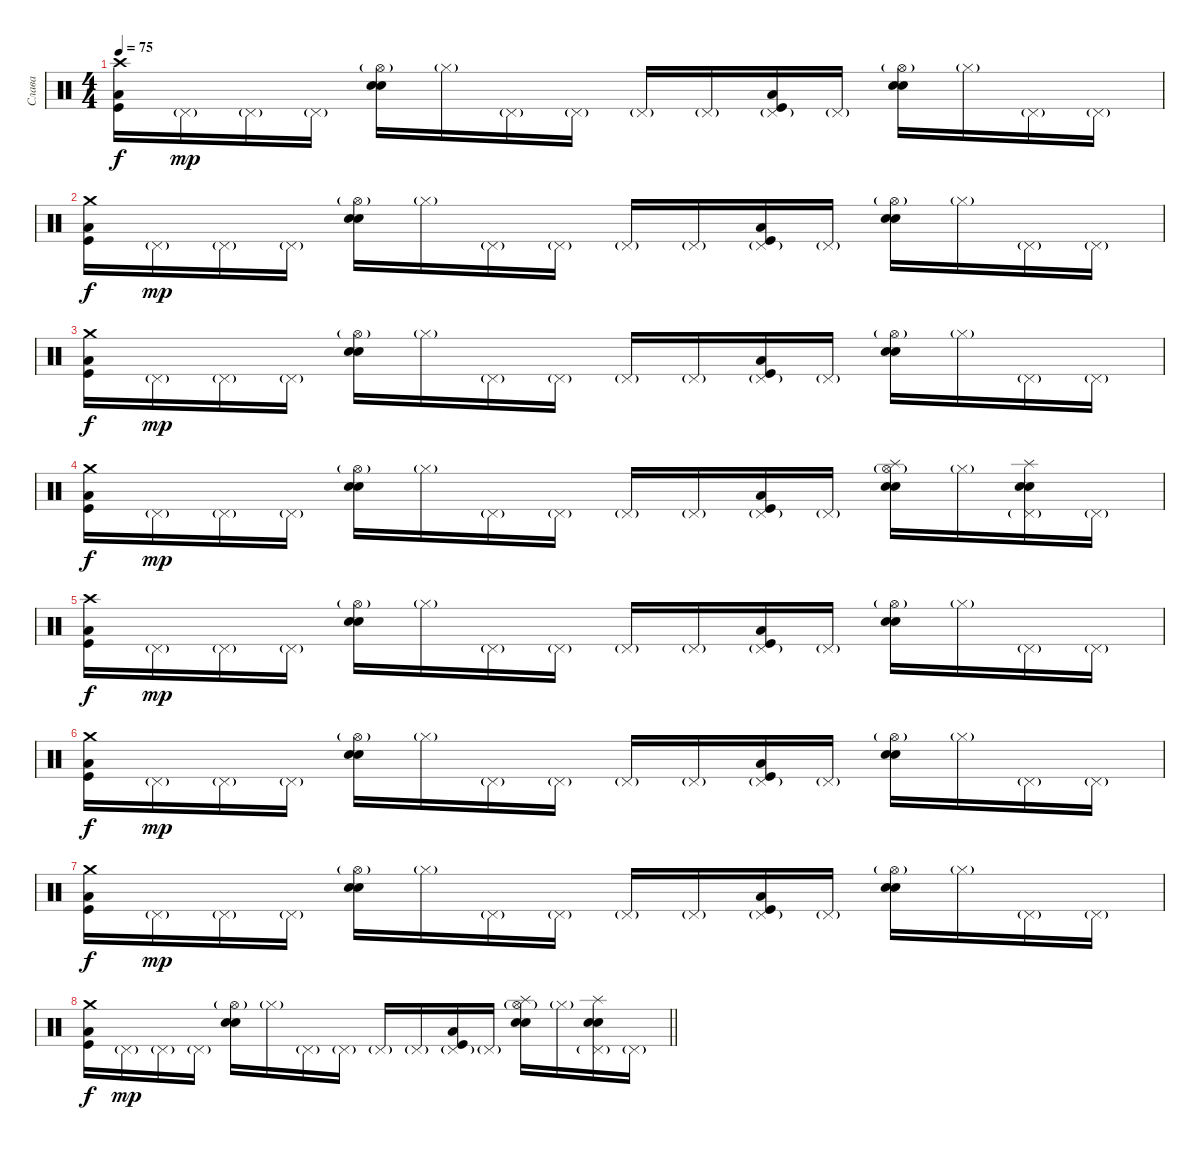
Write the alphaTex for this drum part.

\track ("Слава" "Слава") {instrument percussion}
\staff {score}
\articulation defaults
\ts (4 4)
\tempo 75
\clef neutral
\ks c
("Crash high (hit)" "Low Tom (hit)" "Kick (hit)").16{dy f} "Pedal Hi-Hat (hit)"{g}.16{dy mp} "Pedal Hi-Hat (hit)"{g}.16 "Pedal Hi-Hat (hit)"{g}.16 ("Hi-Hat (open)"{g} "Electric Snare (hit)" "Snare (hit) 2").16 "Hi-Hat (closed)"{g}.16 "Pedal Hi-Hat (hit)"{g}.16 "Pedal Hi-Hat (hit)"{g}.16 "Pedal Hi-Hat (hit)"{g}.16 "Pedal Hi-Hat (hit)"{g}.16 ("Pedal Hi-Hat (hit)"{g} "Low Tom (hit)" "Kick (hit)").16 "Pedal Hi-Hat (hit)"{g}.16 ("Hi-Hat (open)"{g} "Electric Snare (hit)" "Snare (hit) 2").16 "Hi-Hat (closed)"{g}.16 "Pedal Hi-Hat (hit)"{g}.16 "Pedal Hi-Hat (hit)"{g}.16 |
("Crash medium (hit)" "Low Tom (hit)" "Kick (hit)").16{dy f} "Pedal Hi-Hat (hit)"{g}.16{dy mp} "Pedal Hi-Hat (hit)"{g}.16 "Pedal Hi-Hat (hit)"{g}.16 ("Hi-Hat (open)"{g} "Electric Snare (hit)" "Snare (hit) 2").16 "Hi-Hat (closed)"{g}.16 "Pedal Hi-Hat (hit)"{g}.16 "Pedal Hi-Hat (hit)"{g}.16 "Pedal Hi-Hat (hit)"{g}.16 "Pedal Hi-Hat (hit)"{g}.16 ("Pedal Hi-Hat (hit)"{g} "Low Tom (hit)" "Kick (hit)").16 "Pedal Hi-Hat (hit)"{g}.16 ("Hi-Hat (open)"{g} "Electric Snare (hit)" "Snare (hit) 2").16 "Hi-Hat (closed)"{g}.16 "Pedal Hi-Hat (hit)"{g}.16 "Pedal Hi-Hat (hit)"{g}.16 |
("Crash medium (hit)" "Low Tom (hit)" "Kick (hit)").16{dy f} "Pedal Hi-Hat (hit)"{g}.16{dy mp} "Pedal Hi-Hat (hit)"{g}.16 "Pedal Hi-Hat (hit)"{g}.16 ("Hi-Hat (open)"{g} "Electric Snare (hit)" "Snare (hit) 2").16 "Hi-Hat (closed)"{g}.16 "Pedal Hi-Hat (hit)"{g}.16 "Pedal Hi-Hat (hit)"{g}.16 "Pedal Hi-Hat (hit)"{g}.16 "Pedal Hi-Hat (hit)"{g}.16 ("Pedal Hi-Hat (hit)"{g} "Low Tom (hit)" "Kick (hit)").16 "Pedal Hi-Hat (hit)"{g}.16 ("Hi-Hat (open)"{g} "Electric Snare (hit)" "Snare (hit) 2").16 "Hi-Hat (closed)"{g}.16 "Pedal Hi-Hat (hit)"{g}.16 "Pedal Hi-Hat (hit)"{g}.16 |
("Crash medium (hit)" "Low Tom (hit)" "Kick (hit)").16{dy f} "Pedal Hi-Hat (hit)"{g}.16{dy mp} "Pedal Hi-Hat (hit)"{g}.16 "Pedal Hi-Hat (hit)"{g}.16 ("Hi-Hat (open)"{g} "Electric Snare (hit)" "Snare (hit) 2").16 "Hi-Hat (closed)"{g}.16 "Pedal Hi-Hat (hit)"{g}.16 "Pedal Hi-Hat (hit)"{g}.16 "Pedal Hi-Hat (hit)"{g}.16 "Pedal Hi-Hat (hit)"{g}.16 ("Pedal Hi-Hat (hit)"{g} "Low Tom (hit)" "Kick (hit)").16 "Pedal Hi-Hat (hit)"{g}.16 ("Hi-Hat (open)"{g} "Splash (hit)" "Electric Snare (hit)" "Snare (hit) 2").16 "Hi-Hat (closed)"{g}.16 ("Pedal Hi-Hat (hit)"{g} "Splash (hit)" "Electric Snare (hit)" "Snare (hit) 2").16 "Pedal Hi-Hat (hit)"{g}.16 |
("Crash high (hit)" "Low Tom (hit)" "Kick (hit)").16{dy f} "Pedal Hi-Hat (hit)"{g}.16{dy mp} "Pedal Hi-Hat (hit)"{g}.16 "Pedal Hi-Hat (hit)"{g}.16 ("Hi-Hat (open)"{g} "Electric Snare (hit)" "Snare (hit) 2").16 "Hi-Hat (closed)"{g}.16 "Pedal Hi-Hat (hit)"{g}.16 "Pedal Hi-Hat (hit)"{g}.16 "Pedal Hi-Hat (hit)"{g}.16 "Pedal Hi-Hat (hit)"{g}.16 ("Pedal Hi-Hat (hit)"{g} "Low Tom (hit)" "Kick (hit)").16 "Pedal Hi-Hat (hit)"{g}.16 ("Hi-Hat (open)"{g} "Electric Snare (hit)" "Snare (hit) 2").16 "Hi-Hat (closed)"{g}.16 "Pedal Hi-Hat (hit)"{g}.16 "Pedal Hi-Hat (hit)"{g}.16 |
("Crash medium (hit)" "Low Tom (hit)" "Kick (hit)").16{dy f} "Pedal Hi-Hat (hit)"{g}.16{dy mp} "Pedal Hi-Hat (hit)"{g}.16 "Pedal Hi-Hat (hit)"{g}.16 ("Hi-Hat (open)"{g} "Electric Snare (hit)" "Snare (hit) 2").16 "Hi-Hat (closed)"{g}.16 "Pedal Hi-Hat (hit)"{g}.16 "Pedal Hi-Hat (hit)"{g}.16 "Pedal Hi-Hat (hit)"{g}.16 "Pedal Hi-Hat (hit)"{g}.16 ("Pedal Hi-Hat (hit)"{g} "Low Tom (hit)" "Kick (hit)").16 "Pedal Hi-Hat (hit)"{g}.16 ("Hi-Hat (open)"{g} "Electric Snare (hit)" "Snare (hit) 2").16 "Hi-Hat (closed)"{g}.16 "Pedal Hi-Hat (hit)"{g}.16 "Pedal Hi-Hat (hit)"{g}.16 |
("Crash medium (hit)" "Low Tom (hit)" "Kick (hit)").16{dy f} "Pedal Hi-Hat (hit)"{g}.16{dy mp} "Pedal Hi-Hat (hit)"{g}.16 "Pedal Hi-Hat (hit)"{g}.16 ("Hi-Hat (open)"{g} "Electric Snare (hit)" "Snare (hit) 2").16 "Hi-Hat (closed)"{g}.16 "Pedal Hi-Hat (hit)"{g}.16 "Pedal Hi-Hat (hit)"{g}.16 "Pedal Hi-Hat (hit)"{g}.16 "Pedal Hi-Hat (hit)"{g}.16 ("Pedal Hi-Hat (hit)"{g} "Low Tom (hit)" "Kick (hit)").16 "Pedal Hi-Hat (hit)"{g}.16 ("Hi-Hat (open)"{g} "Electric Snare (hit)" "Snare (hit) 2").16 "Hi-Hat (closed)"{g}.16 "Pedal Hi-Hat (hit)"{g}.16 "Pedal Hi-Hat (hit)"{g}.16 |
\barLineRight lightlight
("Crash medium (hit)" "Low Tom (hit)" "Kick (hit)").16{dy f} "Pedal Hi-Hat (hit)"{g}.16{dy mp} "Pedal Hi-Hat (hit)"{g}.16 "Pedal Hi-Hat (hit)"{g}.16 ("Hi-Hat (open)"{g} "Electric Snare (hit)" "Snare (hit) 2").16 "Hi-Hat (closed)"{g}.16 "Pedal Hi-Hat (hit)"{g}.16 "Pedal Hi-Hat (hit)"{g}.16 "Pedal Hi-Hat (hit)"{g}.16 "Pedal Hi-Hat (hit)"{g}.16 ("Pedal Hi-Hat (hit)"{g} "Low Tom (hit)" "Kick (hit)").16 "Pedal Hi-Hat (hit)"{g}.16 ("Hi-Hat (open)"{g} "Splash (hit)" "Electric Snare (hit)" "Snare (hit) 2").16 "Hi-Hat (closed)"{g}.16 ("Pedal Hi-Hat (hit)"{g} "Splash (hit)" "Electric Snare (hit)" "Snare (hit) 2").16 "Pedal Hi-Hat (hit)"{g}.16
